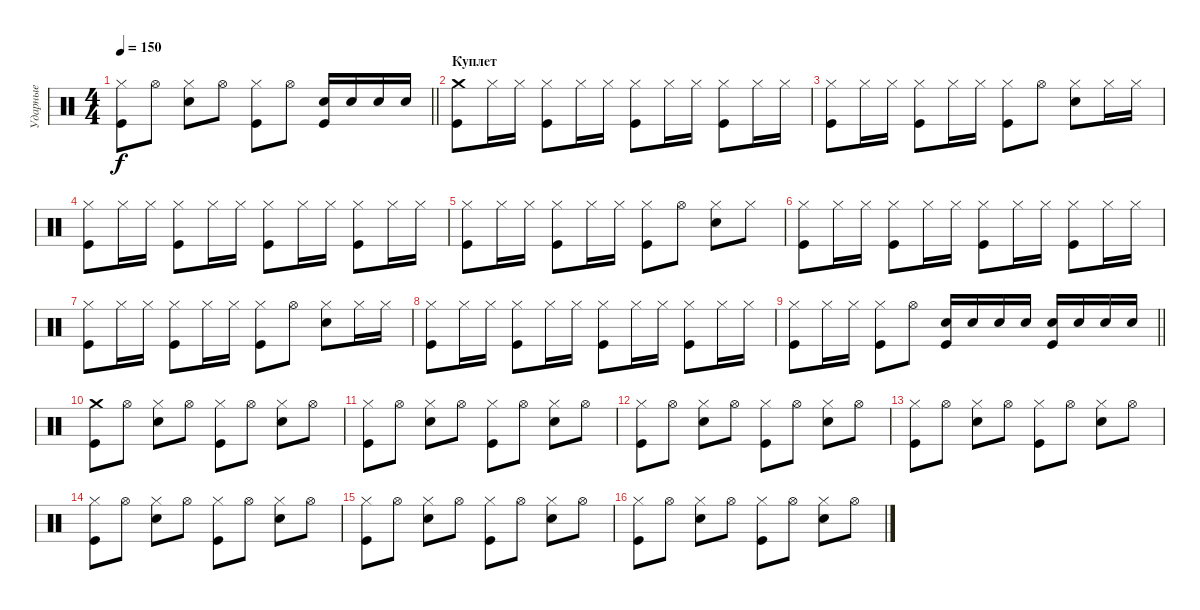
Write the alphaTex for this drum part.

\track ("Ударные" "Ударные") {instrument percussion}
\staff {score}
\articulation defaults
\ts (4 4)
\tempo 150
\clef neutral
\barLineRight lightlight
\ks c
("Hi-Hat (closed)" "Kick (hit)").8{dy f} "Hi-Hat (open)".8 ("Hi-Hat (closed)" "Electric Snare (hit)").8 "Hi-Hat (open)".8 ("Hi-Hat (closed)" "Kick (hit)").8 "Hi-Hat (open)".8 ("Electric Snare (hit)" "Kick (hit)").16 "Electric Snare (hit)".16 "Electric Snare (hit)".16 "Electric Snare (hit)".16 |
\section ("" "Куплет")
("Crash medium (hit)" "Kick (hit)").8 "Hi-Hat (closed)".16 "Hi-Hat (closed)".16 ("Hi-Hat (closed)" "Kick (hit)").8 "Hi-Hat (closed)".16 "Hi-Hat (closed)".16 ("Hi-Hat (closed)" "Kick (hit)").8 "Hi-Hat (closed)".16 "Hi-Hat (closed)".16 ("Hi-Hat (closed)" "Kick (hit)").8 "Hi-Hat (closed)".16 "Hi-Hat (closed)".16 |
("Hi-Hat (closed)" "Kick (hit)").8 "Hi-Hat (closed)".16 "Hi-Hat (closed)".16 ("Hi-Hat (closed)" "Kick (hit)").8 "Hi-Hat (closed)".16 "Hi-Hat (closed)".16 ("Hi-Hat (closed)" "Kick (hit)").8 "Hi-Hat (open)".8 ("Hi-Hat (closed)" "Electric Snare (hit)").8 "Hi-Hat (closed)".16 "Hi-Hat (closed)".16 |
("Hi-Hat (closed)" "Kick (hit)").8 "Hi-Hat (closed)".16 "Hi-Hat (closed)".16 ("Hi-Hat (closed)" "Kick (hit)").8 "Hi-Hat (closed)".16 "Hi-Hat (closed)".16 ("Hi-Hat (closed)" "Kick (hit)").8 "Hi-Hat (closed)".16 "Hi-Hat (closed)".16 ("Hi-Hat (closed)" "Kick (hit)").8 "Hi-Hat (closed)".16 "Hi-Hat (closed)".16 |
("Hi-Hat (closed)" "Kick (hit)").8 "Hi-Hat (closed)".16 "Hi-Hat (closed)".16 ("Hi-Hat (closed)" "Kick (hit)").8 "Hi-Hat (closed)".16 "Hi-Hat (closed)".16 ("Hi-Hat (closed)" "Kick (hit)").8 "Hi-Hat (open)".8 ("Hi-Hat (closed)" "Electric Snare (hit)").8 "Hi-Hat (closed)".8 |
("Hi-Hat (closed)" "Kick (hit)").8 "Hi-Hat (closed)".16 "Hi-Hat (closed)".16 ("Hi-Hat (closed)" "Kick (hit)").8 "Hi-Hat (closed)".16 "Hi-Hat (closed)".16 ("Hi-Hat (closed)" "Kick (hit)").8 "Hi-Hat (closed)".16 "Hi-Hat (closed)".16 ("Hi-Hat (closed)" "Kick (hit)").8 "Hi-Hat (closed)".16 "Hi-Hat (closed)".16 |
("Hi-Hat (closed)" "Kick (hit)").8 "Hi-Hat (closed)".16 "Hi-Hat (closed)".16 ("Hi-Hat (closed)" "Kick (hit)").8 "Hi-Hat (closed)".16 "Hi-Hat (closed)".16 ("Hi-Hat (closed)" "Kick (hit)").8 "Hi-Hat (open)".8 ("Hi-Hat (closed)" "Electric Snare (hit)").8 "Hi-Hat (closed)".16 "Hi-Hat (closed)".16 |
("Hi-Hat (closed)" "Kick (hit)").8 "Hi-Hat (closed)".16 "Hi-Hat (closed)".16 ("Hi-Hat (closed)" "Kick (hit)").8 "Hi-Hat (closed)".16 "Hi-Hat (closed)".16 ("Hi-Hat (closed)" "Kick (hit)").8 "Hi-Hat (closed)".16 "Hi-Hat (closed)".16 ("Hi-Hat (closed)" "Kick (hit)").8 "Hi-Hat (closed)".16 "Hi-Hat (closed)".16 |
\barLineRight lightlight
("Hi-Hat (closed)" "Kick (hit)").8 "Hi-Hat (closed)".16 "Hi-Hat (closed)".16 ("Hi-Hat (closed)" "Kick (hit)").8 "Hi-Hat (open)".8 ("Electric Snare (hit)" "Kick (hit)").16 "Electric Snare (hit)".16 "Electric Snare (hit)".16 "Electric Snare (hit)".16 ("Electric Snare (hit)" "Kick (hit)").16 "Electric Snare (hit)".16 "Electric Snare (hit)".16 "Electric Snare (hit)".16 |
\section ("" " ")
("Crash medium (hit)" "Kick (hit)").8 "Hi-Hat (open)".8 ("Hi-Hat (closed)" "Electric Snare (hit)").8 "Hi-Hat (open)".8 ("Hi-Hat (closed)" "Kick (hit)").8 "Hi-Hat (open)".8 ("Hi-Hat (closed)" "Electric Snare (hit)").8 "Hi-Hat (open)".8 |
("Hi-Hat (closed)" "Kick (hit)").8 "Hi-Hat (open)".8 ("Hi-Hat (closed)" "Electric Snare (hit)").8 "Hi-Hat (open)".8 ("Hi-Hat (closed)" "Kick (hit)").8 "Hi-Hat (open)".8 ("Hi-Hat (closed)" "Electric Snare (hit)").8 "Hi-Hat (open)".8 |
("Hi-Hat (closed)" "Kick (hit)").8 "Hi-Hat (open)".8 ("Hi-Hat (closed)" "Electric Snare (hit)").8 "Hi-Hat (open)".8 ("Hi-Hat (closed)" "Kick (hit)").8 "Hi-Hat (open)".8 ("Hi-Hat (closed)" "Electric Snare (hit)").8 "Hi-Hat (open)".8 |
("Hi-Hat (closed)" "Kick (hit)").8 "Hi-Hat (open)".8 ("Hi-Hat (closed)" "Electric Snare (hit)").8 "Hi-Hat (open)".8 ("Hi-Hat (closed)" "Kick (hit)").8 "Hi-Hat (open)".8 ("Hi-Hat (closed)" "Electric Snare (hit)").8 "Hi-Hat (open)".8 |
("Hi-Hat (closed)" "Kick (hit)").8 "Hi-Hat (open)".8 ("Hi-Hat (closed)" "Electric Snare (hit)").8 "Hi-Hat (open)".8 ("Hi-Hat (closed)" "Kick (hit)").8 "Hi-Hat (open)".8 ("Hi-Hat (closed)" "Electric Snare (hit)").8 "Hi-Hat (open)".8 |
("Hi-Hat (closed)" "Kick (hit)").8 "Hi-Hat (open)".8 ("Hi-Hat (closed)" "Electric Snare (hit)").8 "Hi-Hat (open)".8 ("Hi-Hat (closed)" "Kick (hit)").8 "Hi-Hat (open)".8 ("Hi-Hat (closed)" "Electric Snare (hit)").8 "Hi-Hat (open)".8 |
("Hi-Hat (closed)" "Kick (hit)").8 "Hi-Hat (open)".8 ("Hi-Hat (closed)" "Electric Snare (hit)").8 "Hi-Hat (open)".8 ("Hi-Hat (closed)" "Kick (hit)").8 "Hi-Hat (open)".8 ("Hi-Hat (closed)" "Electric Snare (hit)").8 "Hi-Hat (open)".8
